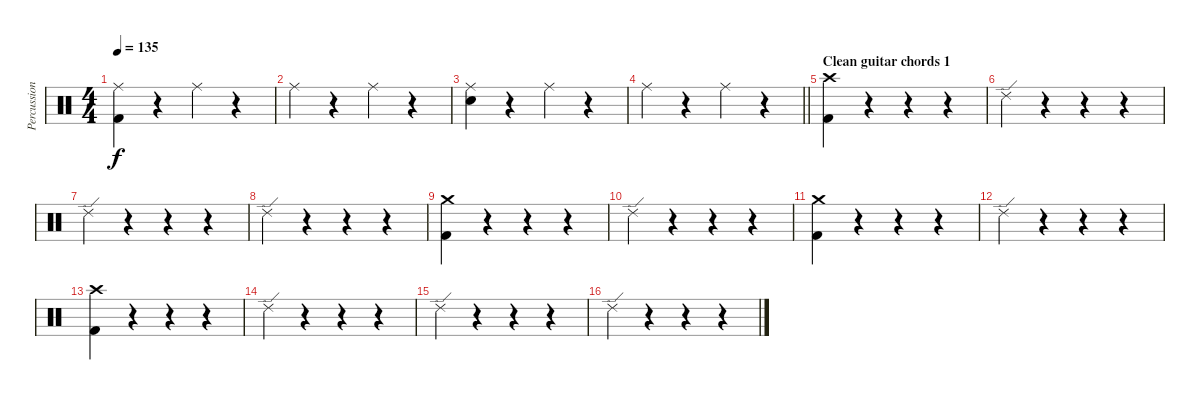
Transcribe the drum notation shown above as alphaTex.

\track ("Percussion" "Percussion") {instrument percussion}
\staff {score}
\articulation defaults
\ts (4 4)
\tempo 135
\clef neutral
\ks c
("Ride (middle)" "Kick (hit) 2").4{dy f} r.4 "Ride (middle)".4 r.4 |
"Ride (middle)".4 r.4 "Ride (middle)".4 r.4 |
("Ride (middle)" "Electric Snare (hit)").4 r.4 "Ride (middle)".4 r.4 |
\barLineRight lightlight "Ride (middle)".4
r.4 "Ride (middle)".4 r.4 |
\section ("" "Clean guitar chords 1")
("Crash high (hit)" "Kick (hit) 2").4 r.4 r.4 r.4 |
"Ride (edge) 2".4 r.4 r.4 r.4 |
"Ride (edge) 2".4 r.4 r.4 r.4 |
"Ride (edge) 2".4 r.4 r.4 r.4 |
("Crash medium (hit)" "Kick (hit) 2").4 r.4 r.4 r.4 |
"Ride (edge) 2".4 r.4 r.4 r.4 |
("Crash medium (hit)" "Kick (hit) 2").4 r.4 r.4 r.4 |
"Ride (edge) 2".4 r.4 r.4 r.4 |
("Crash high (hit)" "Kick (hit) 2").4 r.4 r.4 r.4 |
"Ride (edge) 2".4 r.4 r.4 r.4 |
"Ride (edge) 2".4 r.4 r.4 r.4 |
"Ride (edge) 2".4 r.4 r.4 r.4
